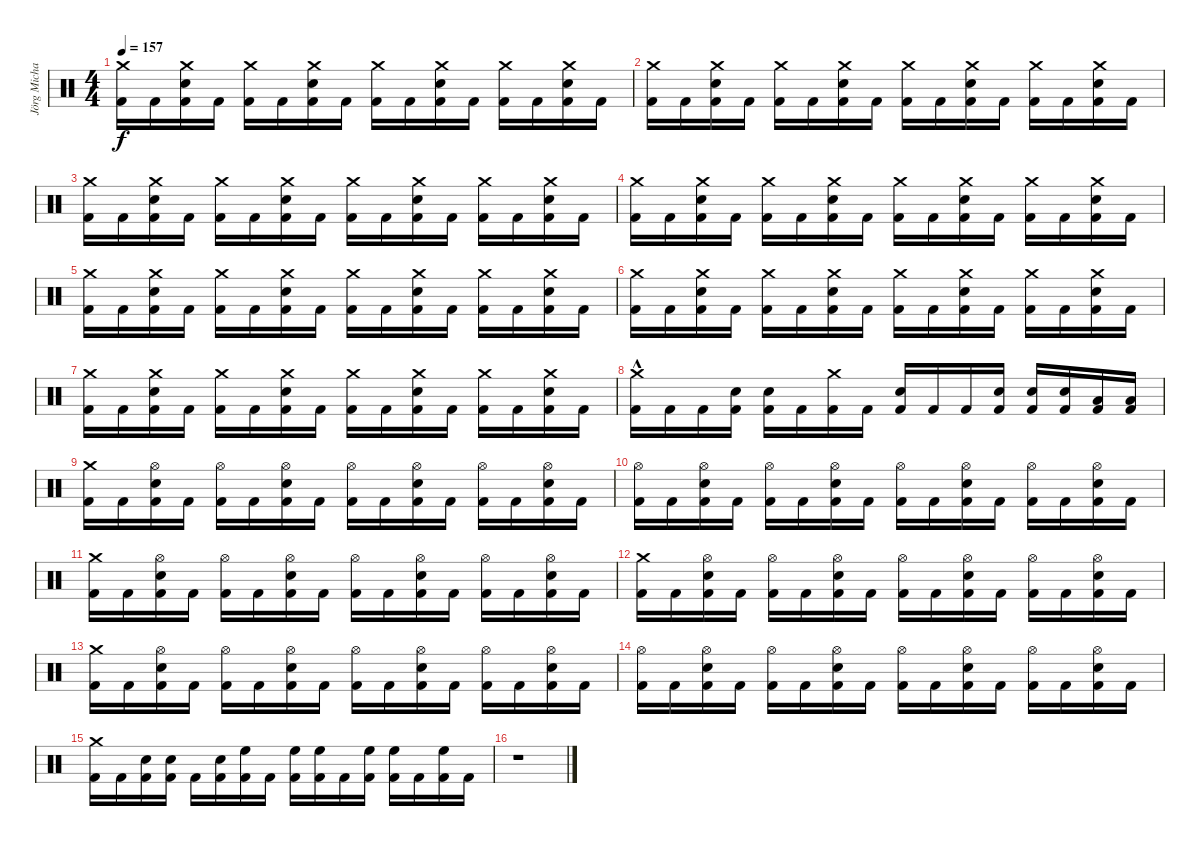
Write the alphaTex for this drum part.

\track ("Jörg Michael" "Jörg Micha") {instrument percussion}
\staff {score}
\articulation defaults
\ts (4 4)
\tempo 157
\clef neutral
\ks c
("Crash medium (hit)" "Kick (hit) 2").16{dy f} "Kick (hit) 2".16 ("Crash medium (hit)" "Snare (hit) 2" "Kick (hit) 2").16 "Kick (hit) 2".16 ("Crash medium (hit)" "Kick (hit) 2").16 "Kick (hit) 2".16 ("Crash medium (hit)" "Snare (hit) 2" "Kick (hit) 2").16 "Kick (hit) 2".16 ("Crash medium (hit)" "Kick (hit) 2").16 "Kick (hit) 2".16 ("Crash medium (hit)" "Snare (hit) 2" "Kick (hit) 2").16 "Kick (hit) 2".16 ("Crash medium (hit)" "Kick (hit) 2").16 "Kick (hit) 2".16 ("Crash medium (hit)" "Snare (hit) 2" "Kick (hit) 2").16 "Kick (hit) 2".16 |
("Crash medium (hit)" "Kick (hit) 2").16 "Kick (hit) 2".16 ("Crash medium (hit)" "Snare (hit) 2" "Kick (hit) 2").16 "Kick (hit) 2".16 ("Crash medium (hit)" "Kick (hit) 2").16 "Kick (hit) 2".16 ("Crash medium (hit)" "Snare (hit) 2" "Kick (hit) 2").16 "Kick (hit) 2".16 ("Crash medium (hit)" "Kick (hit) 2").16 "Kick (hit) 2".16 ("Crash medium (hit)" "Snare (hit) 2" "Kick (hit) 2").16 "Kick (hit) 2".16 ("Crash medium (hit)" "Kick (hit) 2").16 "Kick (hit) 2".16 ("Crash medium (hit)" "Snare (hit) 2" "Kick (hit) 2").16 "Kick (hit) 2".16 |
("Crash medium (hit)" "Kick (hit) 2").16 "Kick (hit) 2".16 ("Crash medium (hit)" "Snare (hit) 2" "Kick (hit) 2").16 "Kick (hit) 2".16 ("Crash medium (hit)" "Kick (hit) 2").16 "Kick (hit) 2".16 ("Crash medium (hit)" "Snare (hit) 2" "Kick (hit) 2").16 "Kick (hit) 2".16 ("Crash medium (hit)" "Kick (hit) 2").16 "Kick (hit) 2".16 ("Crash medium (hit)" "Snare (hit) 2" "Kick (hit) 2").16 "Kick (hit) 2".16 ("Crash medium (hit)" "Kick (hit) 2").16 "Kick (hit) 2".16 ("Crash medium (hit)" "Snare (hit) 2" "Kick (hit) 2").16 "Kick (hit) 2".16 |
("Crash medium (hit)" "Kick (hit) 2").16 "Kick (hit) 2".16 ("Crash medium (hit)" "Snare (hit) 2" "Kick (hit) 2").16 "Kick (hit) 2".16 ("Crash medium (hit)" "Kick (hit) 2").16 "Kick (hit) 2".16 ("Crash medium (hit)" "Snare (hit) 2" "Kick (hit) 2").16 "Kick (hit) 2".16 ("Crash medium (hit)" "Kick (hit) 2").16 "Kick (hit) 2".16 ("Crash medium (hit)" "Snare (hit) 2" "Kick (hit) 2").16 "Kick (hit) 2".16 ("Crash medium (hit)" "Kick (hit) 2").16 "Kick (hit) 2".16 ("Crash medium (hit)" "Snare (hit) 2" "Kick (hit) 2").16 "Kick (hit) 2".16 |
("Crash medium (hit)" "Kick (hit) 2").16 "Kick (hit) 2".16 ("Crash medium (hit)" "Snare (hit) 2" "Kick (hit) 2").16 "Kick (hit) 2".16 ("Crash medium (hit)" "Kick (hit) 2").16 "Kick (hit) 2".16 ("Crash medium (hit)" "Snare (hit) 2" "Kick (hit) 2").16 "Kick (hit) 2".16 ("Crash medium (hit)" "Kick (hit) 2").16 "Kick (hit) 2".16 ("Crash medium (hit)" "Snare (hit) 2" "Kick (hit) 2").16 "Kick (hit) 2".16 ("Crash medium (hit)" "Kick (hit) 2").16 "Kick (hit) 2".16 ("Crash medium (hit)" "Snare (hit) 2" "Kick (hit) 2").16 "Kick (hit) 2".16 |
("Crash medium (hit)" "Kick (hit) 2").16 "Kick (hit) 2".16 ("Crash medium (hit)" "Snare (hit) 2" "Kick (hit) 2").16 "Kick (hit) 2".16 ("Crash medium (hit)" "Kick (hit) 2").16 "Kick (hit) 2".16 ("Crash medium (hit)" "Snare (hit) 2" "Kick (hit) 2").16 "Kick (hit) 2".16 ("Crash medium (hit)" "Kick (hit) 2").16 "Kick (hit) 2".16 ("Crash medium (hit)" "Snare (hit) 2" "Kick (hit) 2").16 "Kick (hit) 2".16 ("Crash medium (hit)" "Kick (hit) 2").16 "Kick (hit) 2".16 ("Crash medium (hit)" "Snare (hit) 2" "Kick (hit) 2").16 "Kick (hit) 2".16 |
("Crash medium (hit)" "Kick (hit) 2").16 "Kick (hit) 2".16 ("Crash medium (hit)" "Snare (hit) 2" "Kick (hit) 2").16 "Kick (hit) 2".16 ("Crash medium (hit)" "Kick (hit) 2").16 "Kick (hit) 2".16 ("Crash medium (hit)" "Snare (hit) 2" "Kick (hit) 2").16 "Kick (hit) 2".16 ("Crash medium (hit)" "Kick (hit) 2").16 "Kick (hit) 2".16 ("Crash medium (hit)" "Snare (hit) 2" "Kick (hit) 2").16 "Kick (hit) 2".16 ("Crash medium (hit)" "Kick (hit) 2").16 "Kick (hit) 2".16 ("Crash medium (hit)" "Snare (hit) 2" "Kick (hit) 2").16 "Kick (hit) 2".16 |
("Crash medium (hit)"{hac} "Kick (hit) 2").16 "Kick (hit) 2".16 "Kick (hit) 2".16 ("Snare (hit) 2" "Kick (hit) 2").16 ("Snare (hit) 2" "Kick (hit) 2").16 "Kick (hit) 2".16 ("Crash medium (hit)" "Kick (hit) 2").16 "Kick (hit) 2".16 ("Snare (hit) 2" "Kick (hit) 2").16 "Kick (hit) 2".16 "Kick (hit) 2".16 ("Snare (hit) 2" "Kick (hit) 2").16 ("Snare (hit) 2" "Kick (hit) 2").16 ("Snare (hit) 2" "Kick (hit) 2").16 ("Low Tom (hit)" "Kick (hit) 2").16 ("Low Tom (hit)" "Kick (hit) 2").16 |
("Crash medium (hit)" "Kick (hit) 2").16 "Kick (hit) 2".16 ("Hi-Hat (open)" "Snare (hit) 2" "Kick (hit) 2").16 "Kick (hit) 2".16 ("Hi-Hat (open)" "Kick (hit) 2").16 "Kick (hit) 2".16 ("Hi-Hat (open)" "Snare (hit) 2" "Kick (hit) 2").16 "Kick (hit) 2".16 ("Hi-Hat (open)" "Kick (hit) 2").16 "Kick (hit) 2".16 ("Hi-Hat (open)" "Snare (hit) 2" "Kick (hit) 2").16 "Kick (hit) 2".16 ("Hi-Hat (open)" "Kick (hit) 2").16 "Kick (hit) 2".16 ("Hi-Hat (open)" "Snare (hit) 2" "Kick (hit) 2").16 "Kick (hit) 2".16 |
("Hi-Hat (open)" "Kick (hit) 2").16 "Kick (hit) 2".16 ("Hi-Hat (open)" "Snare (hit) 2" "Kick (hit) 2").16 "Kick (hit) 2".16 ("Hi-Hat (open)" "Kick (hit) 2").16 "Kick (hit) 2".16 ("Hi-Hat (open)" "Snare (hit) 2" "Kick (hit) 2").16 "Kick (hit) 2".16 ("Hi-Hat (open)" "Kick (hit) 2").16 "Kick (hit) 2".16 ("Hi-Hat (open)" "Snare (hit) 2" "Kick (hit) 2").16 "Kick (hit) 2".16 ("Hi-Hat (open)" "Kick (hit) 2").16 "Kick (hit) 2".16 ("Hi-Hat (open)" "Snare (hit) 2" "Kick (hit) 2").16 "Kick (hit) 2".16 |
("Crash medium (hit)" "Kick (hit) 2").16 "Kick (hit) 2".16 ("Hi-Hat (open)" "Snare (hit) 2" "Kick (hit) 2").16 "Kick (hit) 2".16 ("Hi-Hat (open)" "Kick (hit) 2").16 "Kick (hit) 2".16 ("Hi-Hat (open)" "Snare (hit) 2" "Kick (hit) 2").16 "Kick (hit) 2".16 ("Hi-Hat (open)" "Kick (hit) 2").16 "Kick (hit) 2".16 ("Hi-Hat (open)" "Snare (hit) 2" "Kick (hit) 2").16 "Kick (hit) 2".16 ("Hi-Hat (open)" "Kick (hit) 2").16 "Kick (hit) 2".16 ("Hi-Hat (open)" "Snare (hit) 2" "Kick (hit) 2").16 "Kick (hit) 2".16 |
("Crash medium (hit)" "Kick (hit) 2").16 "Kick (hit) 2".16 ("Hi-Hat (open)" "Snare (hit) 2" "Kick (hit) 2").16 "Kick (hit) 2".16 ("Hi-Hat (open)" "Kick (hit) 2").16 "Kick (hit) 2".16 ("Hi-Hat (open)" "Snare (hit) 2" "Kick (hit) 2").16 "Kick (hit) 2".16 ("Hi-Hat (open)" "Kick (hit) 2").16 "Kick (hit) 2".16 ("Hi-Hat (open)" "Snare (hit) 2" "Kick (hit) 2").16 "Kick (hit) 2".16 ("Hi-Hat (open)" "Kick (hit) 2").16 "Kick (hit) 2".16 ("Hi-Hat (open)" "Snare (hit) 2" "Kick (hit) 2").16 "Kick (hit) 2".16 |
("Crash medium (hit)" "Kick (hit) 2").16 "Kick (hit) 2".16 ("Hi-Hat (open)" "Snare (hit) 2" "Kick (hit) 2").16 "Kick (hit) 2".16 ("Hi-Hat (open)" "Kick (hit) 2").16 "Kick (hit) 2".16 ("Hi-Hat (open)" "Snare (hit) 2" "Kick (hit) 2").16 "Kick (hit) 2".16 ("Hi-Hat (open)" "Kick (hit) 2").16 "Kick (hit) 2".16 ("Hi-Hat (open)" "Snare (hit) 2" "Kick (hit) 2").16 "Kick (hit) 2".16 ("Hi-Hat (open)" "Kick (hit) 2").16 "Kick (hit) 2".16 ("Hi-Hat (open)" "Snare (hit) 2" "Kick (hit) 2").16 "Kick (hit) 2".16 |
("Hi-Hat (open)" "Kick (hit) 2").16 "Kick (hit) 2".16 ("Hi-Hat (open)" "Snare (hit) 2" "Kick (hit) 2").16 "Kick (hit) 2".16 ("Hi-Hat (open)" "Kick (hit) 2").16 "Kick (hit) 2".16 ("Hi-Hat (open)" "Snare (hit) 2" "Kick (hit) 2").16 "Kick (hit) 2".16 ("Hi-Hat (open)" "Kick (hit) 2").16 "Kick (hit) 2".16 ("Hi-Hat (open)" "Snare (hit) 2" "Kick (hit) 2").16 "Kick (hit) 2".16 ("Hi-Hat (open)" "Kick (hit) 2").16 "Kick (hit) 2".16 ("Hi-Hat (open)" "Snare (hit) 2" "Kick (hit) 2").16 "Kick (hit) 2".16 |
("Crash medium (hit)" "Kick (hit) 2").16 "Kick (hit) 2".16 ("Snare (hit) 2" "Kick (hit) 2").16 ("Snare (hit) 2" "Kick (hit) 2").16 "Kick (hit) 2".16 ("Snare (hit) 2" "Kick (hit) 2").16 ("High Floor Tom (hit)" "Kick (hit) 2").16 "Kick (hit) 2".16 ("High Floor Tom (hit)" "Kick (hit) 2").16 ("High Floor Tom (hit)" "Kick (hit) 2").16 "Kick (hit) 2".16 ("High Floor Tom (hit)" "Kick (hit) 2").16 ("High Floor Tom (hit)" "Kick (hit) 2").16 "Kick (hit) 2".16 ("High Floor Tom (hit)" "Kick (hit) 2").16 "Kick (hit) 2".16 |
r.1
